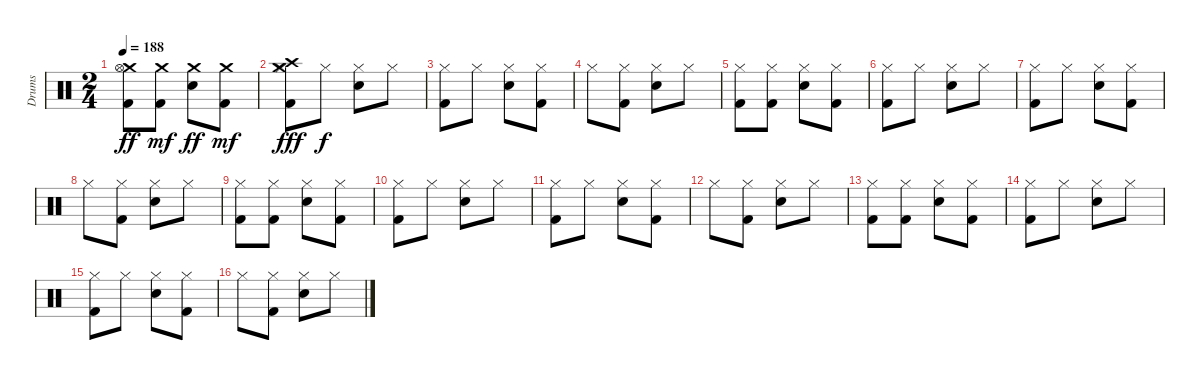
\track ("Drums" "Drums") {instrument percussion}
\staff {score}
\articulation defaults
\ts (2 4)
\tempo 188
\clef neutral
\ks c
("Crash medium (hit)" "Hi-Hat (open)" "Kick (hit) 2").8{dy ff} ("Crash medium (hit)" "Kick (hit) 2").8{dy mf} ("Crash medium (hit)" "Snare (hit) 2").8{dy ff} ("Crash medium (hit)" "Kick (hit) 2").8{dy mf} |
("Crash high (hit)" "Crash medium (hit)" "Hi-Hat (closed)" "Kick (hit) 2").8{dy fff} "Hi-Hat (closed)".8{dy f} ("Hi-Hat (closed)" "Snare (hit) 2").8 "Hi-Hat (closed)".8 |
("Hi-Hat (closed)" "Kick (hit) 2").8 "Hi-Hat (closed)".8 ("Hi-Hat (closed)" "Snare (hit) 2").8 ("Hi-Hat (closed)" "Kick (hit) 2").8 |
"Hi-Hat (closed)".8 ("Hi-Hat (closed)" "Kick (hit) 2").8 ("Hi-Hat (closed)" "Snare (hit) 2").8 "Hi-Hat (closed)".8 |
("Hi-Hat (closed)" "Kick (hit) 2").8 ("Hi-Hat (closed)" "Kick (hit) 2").8 ("Hi-Hat (closed)" "Snare (hit) 2").8 ("Hi-Hat (closed)" "Kick (hit) 2").8 |
("Hi-Hat (closed)" "Kick (hit) 2").8 "Hi-Hat (closed)".8 ("Hi-Hat (closed)" "Snare (hit) 2").8 "Hi-Hat (closed)".8 |
("Hi-Hat (closed)" "Kick (hit) 2").8 "Hi-Hat (closed)".8 ("Hi-Hat (closed)" "Snare (hit) 2").8 ("Hi-Hat (closed)" "Kick (hit) 2").8 |
"Hi-Hat (closed)".8 ("Hi-Hat (closed)" "Kick (hit) 2").8 ("Hi-Hat (closed)" "Snare (hit) 2").8 "Hi-Hat (closed)".8 |
("Hi-Hat (closed)" "Kick (hit) 2").8 ("Hi-Hat (closed)" "Kick (hit) 2").8 ("Hi-Hat (closed)" "Snare (hit) 2").8 ("Hi-Hat (closed)" "Kick (hit) 2").8 |
("Hi-Hat (closed)" "Kick (hit) 2").8 "Hi-Hat (closed)".8 ("Hi-Hat (closed)" "Snare (hit) 2").8 "Hi-Hat (closed)".8 |
("Hi-Hat (closed)" "Kick (hit) 2").8 "Hi-Hat (closed)".8 ("Hi-Hat (closed)" "Snare (hit) 2").8 ("Hi-Hat (closed)" "Kick (hit) 2").8 |
"Hi-Hat (closed)".8 ("Hi-Hat (closed)" "Kick (hit) 2").8 ("Hi-Hat (closed)" "Snare (hit) 2").8 "Hi-Hat (closed)".8 |
("Hi-Hat (closed)" "Kick (hit) 2").8 ("Hi-Hat (closed)" "Kick (hit) 2").8 ("Hi-Hat (closed)" "Snare (hit) 2").8 ("Hi-Hat (closed)" "Kick (hit) 2").8 |
("Hi-Hat (closed)" "Kick (hit) 2").8 "Hi-Hat (closed)".8 ("Hi-Hat (closed)" "Snare (hit) 2").8 "Hi-Hat (closed)".8 |
("Hi-Hat (closed)" "Kick (hit) 2").8 "Hi-Hat (closed)".8 ("Hi-Hat (closed)" "Snare (hit) 2").8 ("Hi-Hat (closed)" "Kick (hit) 2").8 |
"Hi-Hat (closed)".8 ("Hi-Hat (closed)" "Kick (hit) 2").8 ("Hi-Hat (closed)" "Snare (hit) 2").8 "Hi-Hat (closed)".8
